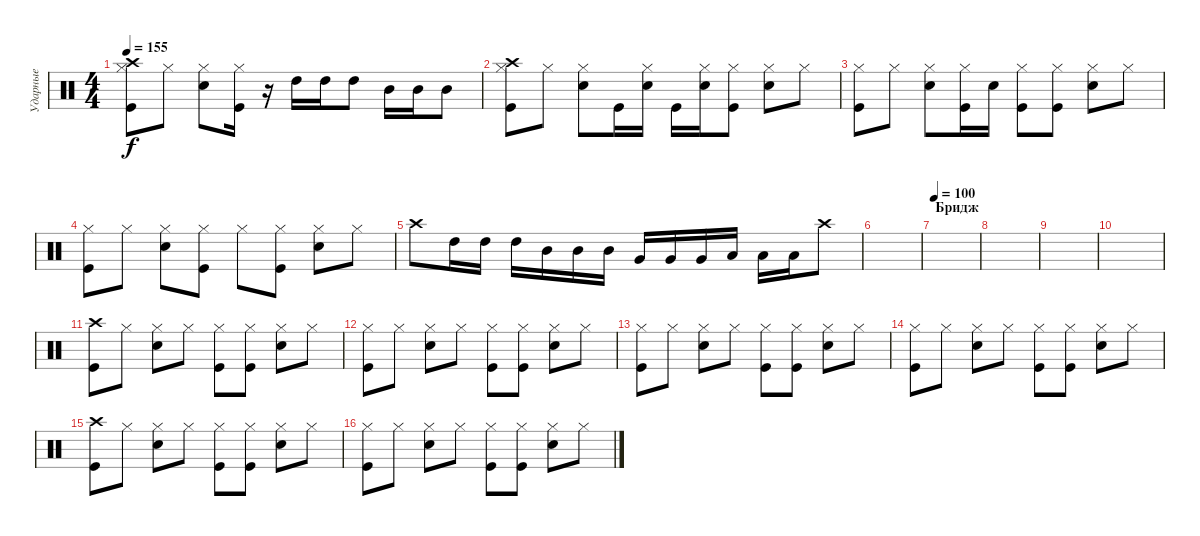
\track ("Ударные" "Ударные") {instrument percussion}
\staff {score}
\articulation defaults
\ts (4 4)
\tempo 155
\clef neutral
\ks c
("Crash high (hit)" "Hi-Hat (closed)" "Kick (hit)").8{dy f} "Hi-Hat (closed)".8 ("Hi-Hat (closed)" "Snare (hit) 2").8 ("Hi-Hat (closed)" "Kick (hit)").16 r.16 "High Tom (hit)".16 "High Tom (hit)".16 "High Tom (hit)".8 "Mid Tom (hit)".16 "Mid Tom (hit)".16 "Mid Tom (hit)".8 |
("Crash high (hit)" "Hi-Hat (closed)" "Kick (hit)").8 "Hi-Hat (closed)".8 ("Hi-Hat (closed)" "Snare (hit) 2").8 "Kick (hit)".16 ("Hi-Hat (closed)" "Snare (hit) 2").16 "Kick (hit)".16 ("Hi-Hat (closed)" "Snare (hit) 2").16 ("Hi-Hat (closed)" "Kick (hit)").8 ("Hi-Hat (closed)" "Snare (hit) 2").8 "Hi-Hat (closed)".8 |
("Hi-Hat (closed)" "Kick (hit)").8 "Hi-Hat (closed)".8 ("Hi-Hat (closed)" "Snare (hit) 2").8 ("Hi-Hat (closed)" "Kick (hit)").16 "Snare (hit) 2".16 ("Hi-Hat (closed)" "Kick (hit)").8 ("Hi-Hat (closed)" "Kick (hit)").8 ("Hi-Hat (closed)" "Snare (hit) 2").8 "Hi-Hat (closed)".8 |
("Hi-Hat (closed)" "Kick (hit)").8 "Hi-Hat (closed)".8 ("Hi-Hat (closed)" "Snare (hit) 2").8 ("Hi-Hat (closed)" "Kick (hit)").8 "Hi-Hat (closed)".8 ("Hi-Hat (closed)" "Kick (hit)").8 ("Hi-Hat (closed)" "Snare (hit) 2").8 "Hi-Hat (closed)".8 |
"Crash high (hit)".8 "High Tom (hit)".16 "High Tom (hit)".16 "High Tom (hit)".16 "Mid Tom (hit)".16 "Mid Tom (hit)".16 "Mid Tom (hit)".16 "Very Low Tom (hit)".16 "Very Low Tom (hit)".16 "Very Low Tom (hit)".16 "Low Floor Tom (hit)".16 "Low Floor Tom (hit)".16 "Low Floor Tom (hit)".16 "Crash high (hit)".8 |
|
\section ("" "Бридж")
\tempo 100
|
|
|
|
("Crash high (hit)" "Kick (hit)").8 "Hi-Hat (closed)".8 ("Hi-Hat (closed)" "Snare (hit) 2").8 "Hi-Hat (closed)".8 ("Hi-Hat (closed)" "Kick (hit)").8 ("Hi-Hat (closed)" "Kick (hit)").8 ("Hi-Hat (closed)" "Snare (hit) 2").8 "Hi-Hat (closed)".8 |
("Hi-Hat (closed)" "Kick (hit)").8 "Hi-Hat (closed)".8 ("Hi-Hat (closed)" "Snare (hit) 2").8 "Hi-Hat (closed)".8 ("Hi-Hat (closed)" "Kick (hit)").8 ("Hi-Hat (closed)" "Kick (hit)").8 ("Hi-Hat (closed)" "Snare (hit) 2").8 "Hi-Hat (closed)".8 |
("Hi-Hat (closed)" "Kick (hit)").8 "Hi-Hat (closed)".8 ("Hi-Hat (closed)" "Snare (hit) 2").8 "Hi-Hat (closed)".8 ("Hi-Hat (closed)" "Kick (hit)").8 ("Hi-Hat (closed)" "Kick (hit)").8 ("Hi-Hat (closed)" "Snare (hit) 2").8 "Hi-Hat (closed)".8 |
("Hi-Hat (closed)" "Kick (hit)").8 "Hi-Hat (closed)".8 ("Hi-Hat (closed)" "Snare (hit) 2").8 "Hi-Hat (closed)".8 ("Hi-Hat (closed)" "Kick (hit)").8 ("Hi-Hat (closed)" "Kick (hit)").8 ("Hi-Hat (closed)" "Snare (hit) 2").8 "Hi-Hat (closed)".8 |
("Crash high (hit)" "Kick (hit)").8 "Hi-Hat (closed)".8 ("Hi-Hat (closed)" "Snare (hit) 2").8 "Hi-Hat (closed)".8 ("Hi-Hat (closed)" "Kick (hit)").8 ("Hi-Hat (closed)" "Kick (hit)").8 ("Hi-Hat (closed)" "Snare (hit) 2").8 "Hi-Hat (closed)".8 |
("Hi-Hat (closed)" "Kick (hit)").8 "Hi-Hat (closed)".8 ("Hi-Hat (closed)" "Snare (hit) 2").8 "Hi-Hat (closed)".8 ("Hi-Hat (closed)" "Kick (hit)").8 ("Hi-Hat (closed)" "Kick (hit)").8 ("Hi-Hat (closed)" "Snare (hit) 2").8 "Hi-Hat (closed)".8
